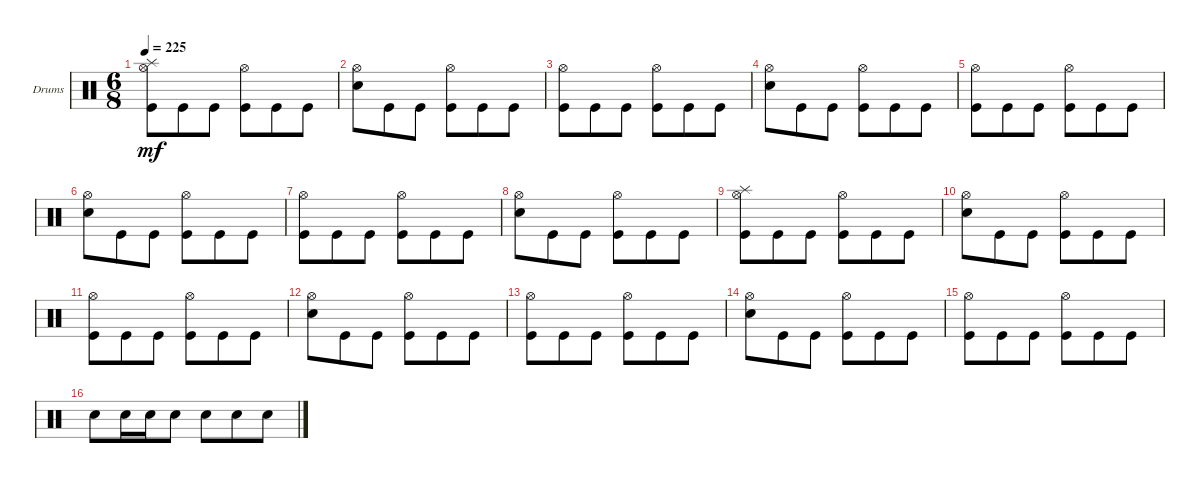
\bracketExtendMode groupsimilarinstruments
\firstSystemTrackNameOrientation horizontal
\otherSystemsTrackNameOrientation horizontal
\track ("Drumkit" "Drums") {instrument percussion}
\staff {score}
\articulation defaults
\ts (6 8)
\tempo 225
\clef neutral
\ks c
("Kick (hit)" "Hi-Hat (open)" "Splash (hit)").8{dy mf} "Kick (hit)".8 "Kick (hit)".8 ("Kick (hit)" "Hi-Hat (open)").8 "Kick (hit)".8 "Kick (hit)".8 |
("Snare (hit) 2" "Hi-Hat (open)").8 "Kick (hit)".8 "Kick (hit)".8 ("Kick (hit)" "Hi-Hat (open)").8 "Kick (hit)".8 "Kick (hit)".8 |
("Kick (hit)" "Hi-Hat (open)").8 "Kick (hit)".8 "Kick (hit)".8 ("Kick (hit)" "Hi-Hat (open)").8 "Kick (hit)".8 "Kick (hit)".8 |
("Snare (hit) 2" "Hi-Hat (open)").8 "Kick (hit)".8 "Kick (hit)".8 ("Kick (hit)" "Hi-Hat (open)").8 "Kick (hit)".8 "Kick (hit)".8 |
("Kick (hit)" "Hi-Hat (open)").8 "Kick (hit)".8 "Kick (hit)".8 ("Kick (hit)" "Hi-Hat (open)").8 "Kick (hit)".8 "Kick (hit)".8 |
("Snare (hit) 2" "Hi-Hat (open)").8 "Kick (hit)".8 "Kick (hit)".8 ("Kick (hit)" "Hi-Hat (open)").8 "Kick (hit)".8 "Kick (hit)".8 |
("Kick (hit)" "Hi-Hat (open)").8 "Kick (hit)".8 "Kick (hit)".8 ("Kick (hit)" "Hi-Hat (open)").8 "Kick (hit)".8 "Kick (hit)".8 |
("Snare (hit) 2" "Hi-Hat (open)").8 "Kick (hit)".8 "Kick (hit)".8 ("Kick (hit)" "Hi-Hat (open)").8 "Kick (hit)".8 "Kick (hit)".8 |
("Kick (hit)" "Hi-Hat (open)" "Splash (hit)").8 "Kick (hit)".8 "Kick (hit)".8 ("Kick (hit)" "Hi-Hat (open)").8 "Kick (hit)".8 "Kick (hit)".8 |
("Snare (hit) 2" "Hi-Hat (open)").8 "Kick (hit)".8 "Kick (hit)".8 ("Kick (hit)" "Hi-Hat (open)").8 "Kick (hit)".8 "Kick (hit)".8 |
("Kick (hit)" "Hi-Hat (open)").8 "Kick (hit)".8 "Kick (hit)".8 ("Kick (hit)" "Hi-Hat (open)").8 "Kick (hit)".8 "Kick (hit)".8 |
("Snare (hit) 2" "Hi-Hat (open)").8 "Kick (hit)".8 "Kick (hit)".8 ("Kick (hit)" "Hi-Hat (open)").8 "Kick (hit)".8 "Kick (hit)".8 |
("Kick (hit)" "Hi-Hat (open)").8 "Kick (hit)".8 "Kick (hit)".8 ("Kick (hit)" "Hi-Hat (open)").8 "Kick (hit)".8 "Kick (hit)".8 |
("Snare (hit) 2" "Hi-Hat (open)").8 "Kick (hit)".8 "Kick (hit)".8 ("Kick (hit)" "Hi-Hat (open)").8 "Kick (hit)".8 "Kick (hit)".8 |
("Kick (hit)" "Hi-Hat (open)").8 "Kick (hit)".8 "Kick (hit)".8 ("Kick (hit)" "Hi-Hat (open)").8 "Kick (hit)".8 "Kick (hit)".8 |
"Snare (hit) 2".8 "Snare (hit) 2".16 "Snare (hit) 2".16 "Snare (hit) 2".8 "Snare (hit) 2".8 "Snare (hit) 2".8 "Snare (hit) 2".8
